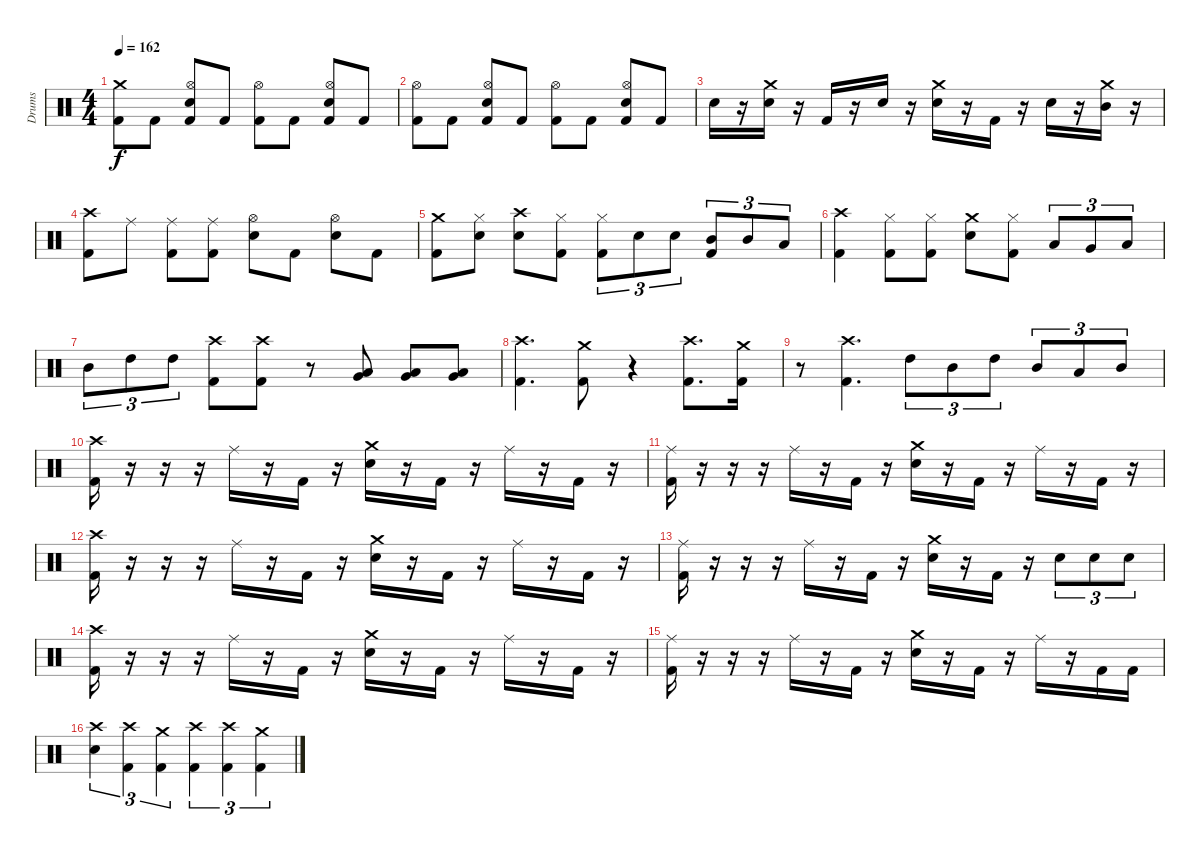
\track ("Drums" "Drums") {instrument percussion}
\staff {score}
\articulation defaults
\ts (4 4)
\tempo 162
\clef neutral
\ks c
("Crash medium (hit)" "Kick (hit) 2").8{dy f} "Kick (hit) 2".8 ("Hi-Hat (open)" "Snare (hit) 2" "Kick (hit) 2").8 "Kick (hit) 2".8 ("Hi-Hat (open)" "Kick (hit) 2").8 "Kick (hit) 2".8 ("Hi-Hat (open)" "Snare (hit) 2" "Kick (hit) 2").8 "Kick (hit) 2".8 |
("Hi-Hat (open)" "Kick (hit) 2").8 "Kick (hit) 2".8 ("Hi-Hat (open)" "Snare (hit) 2" "Kick (hit) 2").8 "Kick (hit) 2".8 ("Hi-Hat (open)" "Kick (hit) 2").8 "Kick (hit) 2".8 ("Hi-Hat (open)" "Snare (hit) 2" "Kick (hit) 2").8 "Kick (hit) 2".8 |
"Snare (hit) 2".16 r.16 ("Crash medium (hit)" "Snare (hit) 2").16 r.16 "Kick (hit) 2".16 r.16 "Snare (hit) 2".16 r.16 ("Crash medium (hit)" "Snare (hit) 2").16 r.16 "Kick (hit) 2".16 r.16 "Snare (hit) 2".16 r.16 ("Crash medium (hit)" "Mid Tom (hit)").16 r.16 |
("Crash high (hit)" "Kick (hit) 2").8 "Ride (middle)".8 ("Ride (middle)" "Kick (hit) 2").8 ("Ride (middle)" "Kick (hit) 2").8 ("Hi-Hat (open)" "Snare (hit) 2").8 "Kick (hit) 2".8 ("Hi-Hat (open)" "Snare (hit) 2").8 "Kick (hit) 2".8 |
("Crash medium (hit)" "Kick (hit) 2").8 ("Hi-Hat (closed)" "Snare (hit) 2").8 ("Crash high (hit)" "Snare (hit) 2").8 ("Hi-Hat (closed)" "Kick (hit) 2").8 ("Hi-Hat (closed)" "Kick (hit) 2").8{tu (3 2)} "Snare (hit) 2".8{tu (3 2)} "Snare (hit) 2".8{tu (3 2)} ("Mid Tom (hit)" "Kick (hit) 2").8{tu (3 2)} "Mid Tom (hit)".8{tu (3 2)} "Low Tom (hit)".8{tu (3 2)} |
("Crash high (hit)" "Kick (hit) 2").4 ("Hi-Hat (closed)" "Kick (hit) 2").8 ("Hi-Hat (closed)" "Kick (hit) 2").8 ("Crash medium (hit)" "Snare (hit) 2").8 ("Hi-Hat (closed)" "Kick (hit) 2").8 "Low Floor Tom (hit)".8{tu (3 2)} "Very Low Tom (hit)".8{tu (3 2)} "Low Tom (hit)".8{tu (3 2)} |
"Mid Tom (hit)".8{tu (3 2)} "High Tom (hit)".8{tu (3 2)} "High Tom (hit)".8{tu (3 2)} ("Crash high (hit)" "Kick (hit) 2").8 ("Crash high (hit)" "Kick (hit) 2").8 r.8 ("Very Low Tom (hit)" "Low Tom (hit)").8 ("Very Low Tom (hit)" "Low Tom (hit)").8 ("Very Low Tom (hit)" "Low Tom (hit)").8 |
("Crash high (hit)" "Kick (hit) 2").4{d} ("Crash medium (hit)" "Kick (hit) 2").8 r.4 ("Crash high (hit)" "Kick (hit) 2").8{d} ("Crash medium (hit)" "Kick (hit) 2").16 |
r.8 ("Crash high (hit)" "Kick (hit) 2").4{d} "High Tom (hit)".8{tu (3 2)} "Mid Tom (hit)".8{tu (3 2)} "High Tom (hit)".8{tu (3 2)} "Mid Tom (hit)".8{tu (3 2)} "Low Tom (hit)".8{tu (3 2)} "Mid Tom (hit)".8{tu (3 2)} |
("Crash high (hit)" "Kick (hit) 2").16 r.16 r.16 r.16 "Ride (middle)".16 r.16 "Kick (hit) 2".16 r.16 ("Crash medium (hit)" "Snare (hit) 2").16 r.16 "Kick (hit) 2".16 r.16 "Ride (middle)".16 r.16 "Kick (hit) 2".16 r.16 |
("Ride (middle)" "Kick (hit) 2").16 r.16 r.16 r.16 "Ride (middle)".16 r.16 "Kick (hit) 2".16 r.16 ("Crash medium (hit)" "Snare (hit) 2").16 r.16 "Kick (hit) 2".16 r.16 "Ride (middle)".16 r.16 "Kick (hit) 2".16 r.16 |
("Crash high (hit)" "Kick (hit) 2").16 r.16 r.16 r.16 "Ride (middle)".16 r.16 "Kick (hit) 2".16 r.16 ("Crash medium (hit)" "Snare (hit) 2").16 r.16 "Kick (hit) 2".16 r.16 "Ride (middle)".16 r.16 "Kick (hit) 2".16 r.16 |
("Ride (middle)" "Kick (hit) 2").16 r.16 r.16 r.16 "Ride (middle)".16 r.16 "Kick (hit) 2".16 r.16 ("Crash medium (hit)" "Snare (hit) 2").16 r.16 "Kick (hit) 2".16 r.16 "Snare (hit) 2".8{tu (3 2)} "Snare (hit) 2".8{tu (3 2)} "Snare (hit) 2".8{tu (3 2)} |
("Crash high (hit)" "Kick (hit) 2").16 r.16 r.16 r.16 "Ride (middle)".16 r.16 "Kick (hit) 2".16 r.16 ("Crash medium (hit)" "Snare (hit) 2").16 r.16 "Kick (hit) 2".16 r.16 "Ride (middle)".16 r.16 "Kick (hit) 2".16 r.16 |
("Ride (middle)" "Kick (hit) 2").16 r.16 r.16 r.16 "Ride (middle)".16 r.16 "Kick (hit) 2".16 r.16 ("Crash medium (hit)" "Snare (hit) 2").16 r.16 "Kick (hit) 2".16 r.16 "Ride (middle)".16 r.16 "Kick (hit) 2".16 "Kick (hit) 2".16 |
("Crash high (hit)" "Snare (hit) 2").4{tu (3 2)} ("Crash high (hit)" "Kick (hit) 2").4{tu (3 2)} ("Crash medium (hit)" "Kick (hit) 2").4{tu (3 2)} ("Crash high (hit)" "Kick (hit) 2").4{tu (3 2)} ("Crash high (hit)" "Kick (hit) 2").4{tu (3 2)} ("Crash medium (hit)" "Kick (hit) 2").4{tu (3 2)}
